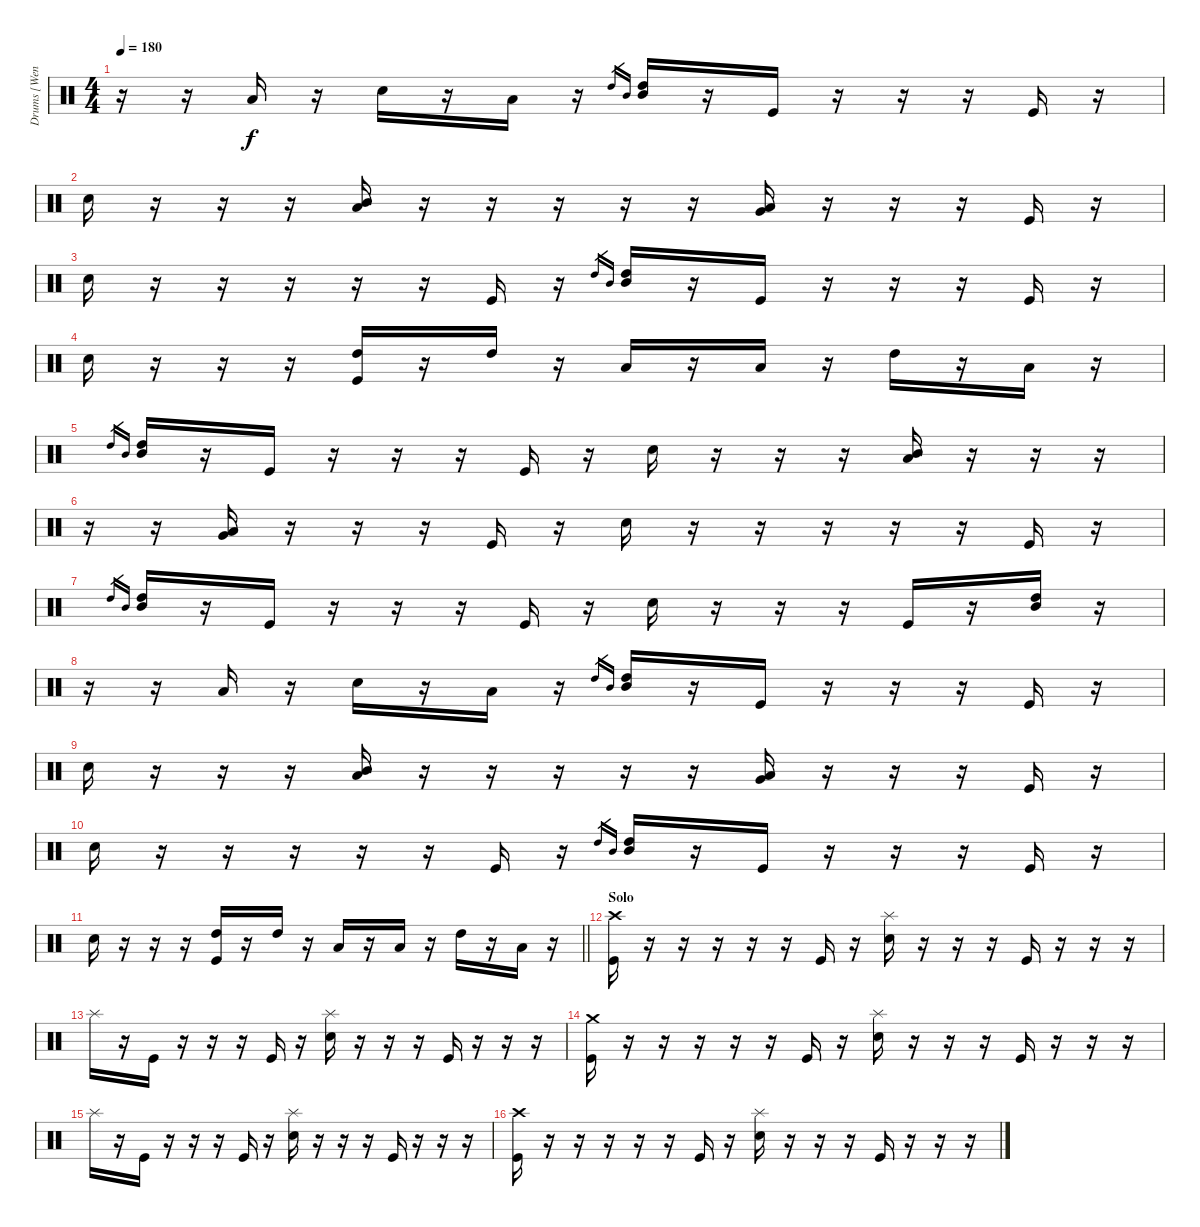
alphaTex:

\track ("Drums [Wengren]" "Drums [Wen") {instrument percussion}
\staff {score}
\articulation defaults
\ts (4 4)
\tempo 180
\clef neutral
\ks c
r.16{dy f} r.16 "Low Floor Tom (hit)".16 r.16 "Electric Snare (hit)".16 r.16 "Low Floor Tom (hit)".16 r.16 "High Tom (hit)".16{gr} "Mid Tom (hit)".16{gr} ("High Tom (hit)" "Mid Tom (hit)").16 r.16 "Kick (hit)".16 r.16 r.16 r.16 "Kick (hit)".16 r.16 |
"Electric Snare (hit)".16 r.16 r.16 r.16 ("Mid Tom (hit)" "Low Tom (hit)").16 r.16 r.16 r.16 r.16 r.16 ("Very Low Tom (hit)" "Low Floor Tom (hit)").16 r.16 r.16 r.16 "Kick (hit)".16 r.16 |
"Electric Snare (hit)".16 r.16 r.16 r.16 r.16 r.16 "Kick (hit)".16 r.16 "High Tom (hit)".16{gr} "Mid Tom (hit)".16{gr} ("High Tom (hit)" "Mid Tom (hit)").16 r.16 "Kick (hit)".16 r.16 r.16 r.16 "Kick (hit)".16 r.16 |
"Electric Snare (hit)".16 r.16 r.16 r.16 ("High Tom (hit)" "Kick (hit)").16 r.16 "High Tom (hit)".16 r.16 "Low Tom (hit)".16 r.16 "Low Tom (hit)".16 r.16 "High Tom (hit)".16 r.16 "Low Floor Tom (hit)".16 r.16 |
"High Tom (hit)".16{gr} "Mid Tom (hit)".16{gr} ("High Tom (hit)" "Mid Tom (hit)").16 r.16 "Kick (hit)".16 r.16 r.16 r.16 "Kick (hit)".16 r.16 "Electric Snare (hit)".16 r.16 r.16 r.16 ("Mid Tom (hit)" "Low Tom (hit)").16 r.16 r.16 r.16 |
r.16 r.16 ("Very Low Tom (hit)" "Low Floor Tom (hit)").16 r.16 r.16 r.16 "Kick (hit)".16 r.16 "Electric Snare (hit)".16 r.16 r.16 r.16 r.16 r.16 "Kick (hit)".16 r.16 |
"High Tom (hit)".16{gr} "Mid Tom (hit)".16{gr} ("High Tom (hit)" "Mid Tom (hit)").16 r.16 "Kick (hit)".16 r.16 r.16 r.16 "Kick (hit)".16 r.16 "Electric Snare (hit)".16 r.16 r.16 r.16 "Kick (hit)".16 r.16 ("High Tom (hit)" "Mid Tom (hit)").16 r.16 |
r.16 r.16 "Low Floor Tom (hit)".16 r.16 "Electric Snare (hit)".16 r.16 "Low Floor Tom (hit)".16 r.16 "High Tom (hit)".16{gr} "Mid Tom (hit)".16{gr} ("High Tom (hit)" "Mid Tom (hit)").16 r.16 "Kick (hit)".16 r.16 r.16 r.16 "Kick (hit)".16 r.16 |
"Electric Snare (hit)".16 r.16 r.16 r.16 ("Mid Tom (hit)" "Low Tom (hit)").16 r.16 r.16 r.16 r.16 r.16 ("Very Low Tom (hit)" "Low Floor Tom (hit)").16 r.16 r.16 r.16 "Kick (hit)".16 r.16 |
"Electric Snare (hit)".16 r.16 r.16 r.16 r.16 r.16 "Kick (hit)".16 r.16 "High Tom (hit)".16{gr} "Mid Tom (hit)".16{gr} ("High Tom (hit)" "Mid Tom (hit)").16 r.16 "Kick (hit)".16 r.16 r.16 r.16 "Kick (hit)".16 r.16 |
\barLineRight lightlight "Electric Snare (hit)".16
r.16 r.16 r.16 ("High Tom (hit)" "Kick (hit)").16 r.16 "High Tom (hit)".16 r.16 "Low Tom (hit)".16 r.16 "Low Tom (hit)".16 r.16 "High Tom (hit)".16 r.16 "Low Floor Tom (hit)".16 r.16 |
\section ("" "Solo")
("Crash high (hit)" "Kick (hit)").16 r.16 r.16 r.16 r.16 r.16 "Kick (hit)".16 r.16 ("Splash (hit)" "Electric Snare (hit)").16 r.16 r.16 r.16 "Kick (hit)".16 r.16 r.16 r.16 |
"Splash (hit)".16 r.16 "Kick (hit)".16 r.16 r.16 r.16 "Kick (hit)".16 r.16 ("Splash (hit)" "Electric Snare (hit)").16 r.16 r.16 r.16 "Kick (hit)".16 r.16 r.16 r.16 |
("Crash medium (hit)" "Kick (hit)").16 r.16 r.16 r.16 r.16 r.16 "Kick (hit)".16 r.16 ("Splash (hit)" "Electric Snare (hit)").16 r.16 r.16 r.16 "Kick (hit)".16 r.16 r.16 r.16 |
"Splash (hit)".16 r.16 "Kick (hit)".16 r.16 r.16 r.16 "Kick (hit)".16 r.16 ("Splash (hit)" "Electric Snare (hit)").16 r.16 r.16 r.16 "Kick (hit)".16 r.16 r.16 r.16 |
("Crash high (hit)" "Kick (hit)").16 r.16 r.16 r.16 r.16 r.16 "Kick (hit)".16 r.16 ("Splash (hit)" "Electric Snare (hit)").16 r.16 r.16 r.16 "Kick (hit)".16 r.16 r.16 r.16
